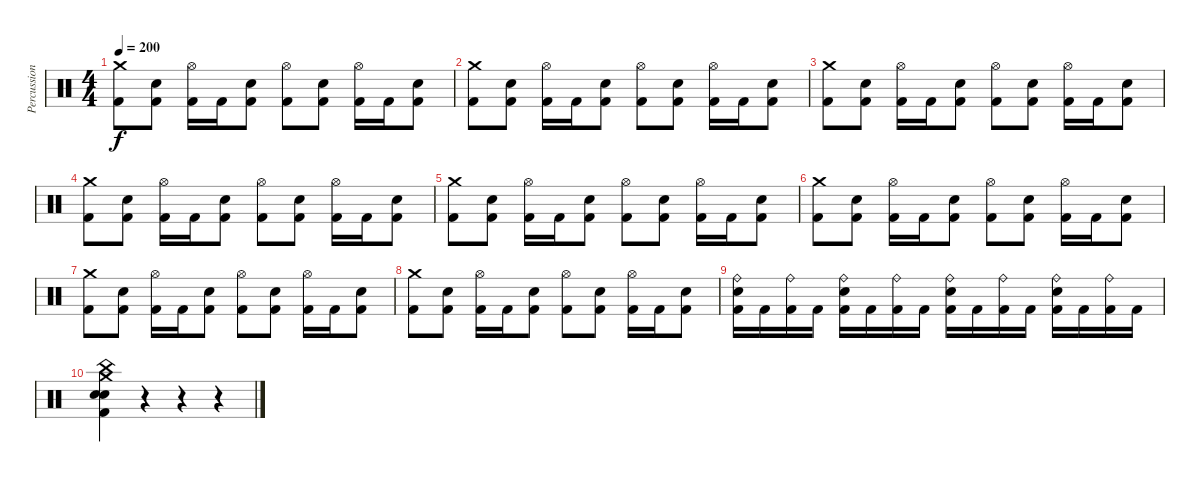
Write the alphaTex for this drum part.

\track ("Percussion" "Percussion") {instrument percussion}
\staff {score}
\articulation defaults
\ts (4 4)
\tempo 200
\clef neutral
\ks c
("Crash medium (hit)" "Kick (hit) 2").8{dy f} ("Electric Snare (hit)" "Kick (hit) 2").8 ("Hi-Hat (open)" "Kick (hit) 2").16 "Kick (hit) 2".16 ("Electric Snare (hit)" "Kick (hit) 2").8 ("Hi-Hat (open)" "Kick (hit) 2").8 ("Electric Snare (hit)" "Kick (hit) 2").8 ("Hi-Hat (open)" "Kick (hit) 2").16 "Kick (hit) 2".16 ("Electric Snare (hit)" "Kick (hit) 2").8 |
("Crash medium (hit)" "Kick (hit) 2").8 ("Electric Snare (hit)" "Kick (hit) 2").8 ("Hi-Hat (open)" "Kick (hit) 2").16 "Kick (hit) 2".16 ("Electric Snare (hit)" "Kick (hit) 2").8 ("Hi-Hat (open)" "Kick (hit) 2").8 ("Electric Snare (hit)" "Kick (hit) 2").8 ("Hi-Hat (open)" "Kick (hit) 2").16 "Kick (hit) 2".16 ("Electric Snare (hit)" "Kick (hit) 2").8 |
("Crash medium (hit)" "Kick (hit) 2").8 ("Electric Snare (hit)" "Kick (hit) 2").8 ("Hi-Hat (open)" "Kick (hit) 2").16 "Kick (hit) 2".16 ("Electric Snare (hit)" "Kick (hit) 2").8 ("Hi-Hat (open)" "Kick (hit) 2").8 ("Electric Snare (hit)" "Kick (hit) 2").8 ("Hi-Hat (open)" "Kick (hit) 2").16 "Kick (hit) 2".16 ("Electric Snare (hit)" "Kick (hit) 2").8 |
("Crash medium (hit)" "Kick (hit) 2").8 ("Electric Snare (hit)" "Kick (hit) 2").8 ("Hi-Hat (open)" "Kick (hit) 2").16 "Kick (hit) 2".16 ("Electric Snare (hit)" "Kick (hit) 2").8 ("Hi-Hat (open)" "Kick (hit) 2").8 ("Electric Snare (hit)" "Kick (hit) 2").8 ("Hi-Hat (open)" "Kick (hit) 2").16 "Kick (hit) 2".16 ("Electric Snare (hit)" "Kick (hit) 2").8 |
("Crash medium (hit)" "Kick (hit) 2").8 ("Electric Snare (hit)" "Kick (hit) 2").8 ("Hi-Hat (open)" "Kick (hit) 2").16 "Kick (hit) 2".16 ("Electric Snare (hit)" "Kick (hit) 2").8 ("Hi-Hat (open)" "Kick (hit) 2").8 ("Electric Snare (hit)" "Kick (hit) 2").8 ("Hi-Hat (open)" "Kick (hit) 2").16 "Kick (hit) 2".16 ("Electric Snare (hit)" "Kick (hit) 2").8 |
("Crash medium (hit)" "Kick (hit) 2").8 ("Electric Snare (hit)" "Kick (hit) 2").8 ("Hi-Hat (open)" "Kick (hit) 2").16 "Kick (hit) 2".16 ("Electric Snare (hit)" "Kick (hit) 2").8 ("Hi-Hat (open)" "Kick (hit) 2").8 ("Electric Snare (hit)" "Kick (hit) 2").8 ("Hi-Hat (open)" "Kick (hit) 2").16 "Kick (hit) 2".16 ("Electric Snare (hit)" "Kick (hit) 2").8 |
("Crash medium (hit)" "Kick (hit) 2").8 ("Electric Snare (hit)" "Kick (hit) 2").8 ("Hi-Hat (open)" "Kick (hit) 2").16 "Kick (hit) 2".16 ("Electric Snare (hit)" "Kick (hit) 2").8 ("Hi-Hat (open)" "Kick (hit) 2").8 ("Electric Snare (hit)" "Kick (hit) 2").8 ("Hi-Hat (open)" "Kick (hit) 2").16 "Kick (hit) 2".16 ("Electric Snare (hit)" "Kick (hit) 2").8 |
("Crash medium (hit)" "Kick (hit) 2").8 ("Electric Snare (hit)" "Kick (hit) 2").8 ("Hi-Hat (open)" "Kick (hit) 2").16 "Kick (hit) 2".16 ("Electric Snare (hit)" "Kick (hit) 2").8 ("Hi-Hat (open)" "Kick (hit) 2").8 ("Electric Snare (hit)" "Kick (hit) 2").8 ("Hi-Hat (open)" "Kick (hit) 2").16 "Kick (hit) 2".16 ("Electric Snare (hit)" "Kick (hit) 2").8 |
("Ride (bell)" "Electric Snare (hit)" "Kick (hit) 2").16 "Kick (hit) 2".16 ("Ride (bell)" "Kick (hit) 2").16 "Kick (hit) 2".16 ("Ride (bell)" "Electric Snare (hit)" "Kick (hit) 2").16 "Kick (hit) 2".16 ("Ride (bell)" "Kick (hit) 2").16 "Kick (hit) 2".16 ("Ride (bell)" "Electric Snare (hit)" "Kick (hit) 2").16 "Kick (hit) 2".16 ("Ride (bell)" "Kick (hit) 2").16 "Kick (hit) 2".16 ("Ride (bell)" "Electric Snare (hit)" "Kick (hit) 2").16 "Kick (hit) 2".16 ("Ride (bell)" "Kick (hit) 2").16 "Kick (hit) 2".16 |
("Crash medium (hit)" "China (hit)" "Electric Snare (hit)" "Electric Snare (hit)" "Kick (hit) 2").4 r.4 r.4 r.4
